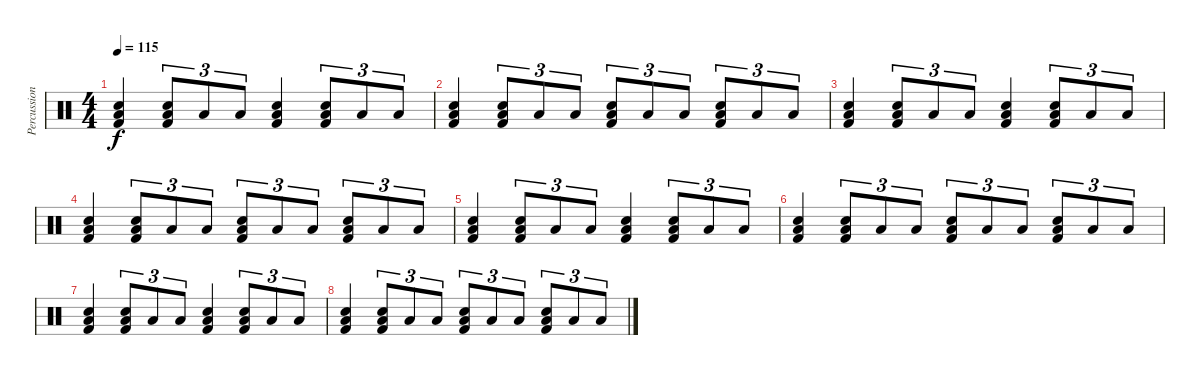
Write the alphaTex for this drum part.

\track ("Percussions" "Percussion") {instrument percussion}
\staff {score}
\articulation defaults
\ts (4 4)
\tempo 115
\clef neutral
\ks c
("Kick (hit) 2" "Low Tom (hit)" "Snare (hit) 2").4{dy f} ("Kick (hit) 2" "Low Tom (hit)" "Snare (hit) 2").8{tu (3 2)} "Low Tom (hit)".8{tu (3 2)} "Low Tom (hit)".8{tu (3 2)} ("Kick (hit) 2" "Low Tom (hit)" "Snare (hit) 2").4 ("Kick (hit) 2" "Low Tom (hit)" "Snare (hit) 2").8{tu (3 2)} "Low Tom (hit)".8{tu (3 2)} "Low Tom (hit)".8{tu (3 2)} |
("Kick (hit) 2" "Low Tom (hit)" "Snare (hit) 2").4 ("Kick (hit) 2" "Low Tom (hit)" "Snare (hit) 2").8{tu (3 2)} "Low Tom (hit)".8{tu (3 2)} "Low Tom (hit)".8{tu (3 2)} ("Kick (hit) 2" "Low Tom (hit)" "Snare (hit) 2").8{tu (3 2)} "Low Tom (hit)".8{tu (3 2)} "Low Tom (hit)".8{tu (3 2)} ("Kick (hit) 2" "Low Tom (hit)" "Snare (hit) 2").8{tu (3 2)} "Low Tom (hit)".8{tu (3 2)} "Low Tom (hit)".8{tu (3 2)} |
("Kick (hit) 2" "Low Tom (hit)" "Snare (hit) 2").4 ("Kick (hit) 2" "Low Tom (hit)" "Snare (hit) 2").8{tu (3 2)} "Low Tom (hit)".8{tu (3 2)} "Low Tom (hit)".8{tu (3 2)} ("Kick (hit) 2" "Low Tom (hit)" "Snare (hit) 2").4 ("Kick (hit) 2" "Low Tom (hit)" "Snare (hit) 2").8{tu (3 2)} "Low Tom (hit)".8{tu (3 2)} "Low Tom (hit)".8{tu (3 2)} |
("Kick (hit) 2" "Low Tom (hit)" "Snare (hit) 2").4 ("Kick (hit) 2" "Low Tom (hit)" "Snare (hit) 2").8{tu (3 2)} "Low Tom (hit)".8{tu (3 2)} "Low Tom (hit)".8{tu (3 2)} ("Kick (hit) 2" "Low Tom (hit)" "Snare (hit) 2").8{tu (3 2)} "Low Tom (hit)".8{tu (3 2)} "Low Tom (hit)".8{tu (3 2)} ("Kick (hit) 2" "Low Tom (hit)" "Snare (hit) 2").8{tu (3 2)} "Low Tom (hit)".8{tu (3 2)} "Low Tom (hit)".8{tu (3 2)} |
("Kick (hit) 2" "Low Tom (hit)" "Snare (hit) 2").4 ("Kick (hit) 2" "Low Tom (hit)" "Snare (hit) 2").8{tu (3 2)} "Low Tom (hit)".8{tu (3 2)} "Low Tom (hit)".8{tu (3 2)} ("Kick (hit) 2" "Low Tom (hit)" "Snare (hit) 2").4 ("Kick (hit) 2" "Low Tom (hit)" "Snare (hit) 2").8{tu (3 2)} "Low Tom (hit)".8{tu (3 2)} "Low Tom (hit)".8{tu (3 2)} |
("Kick (hit) 2" "Low Tom (hit)" "Snare (hit) 2").4 ("Kick (hit) 2" "Low Tom (hit)" "Snare (hit) 2").8{tu (3 2)} "Low Tom (hit)".8{tu (3 2)} "Low Tom (hit)".8{tu (3 2)} ("Kick (hit) 2" "Low Tom (hit)" "Snare (hit) 2").8{tu (3 2)} "Low Tom (hit)".8{tu (3 2)} "Low Tom (hit)".8{tu (3 2)} ("Kick (hit) 2" "Low Tom (hit)" "Snare (hit) 2").8{tu (3 2)} "Low Tom (hit)".8{tu (3 2)} "Low Tom (hit)".8{tu (3 2)} |
("Kick (hit) 2" "Low Tom (hit)" "Snare (hit) 2").4 ("Kick (hit) 2" "Low Tom (hit)" "Snare (hit) 2").8{tu (3 2)} "Low Tom (hit)".8{tu (3 2)} "Low Tom (hit)".8{tu (3 2)} ("Kick (hit) 2" "Low Tom (hit)" "Snare (hit) 2").4 ("Kick (hit) 2" "Low Tom (hit)" "Snare (hit) 2").8{tu (3 2)} "Low Tom (hit)".8{tu (3 2)} "Low Tom (hit)".8{tu (3 2)} |
("Kick (hit) 2" "Low Tom (hit)" "Snare (hit) 2").4 ("Kick (hit) 2" "Low Tom (hit)" "Snare (hit) 2").8{tu (3 2)} "Low Tom (hit)".8{tu (3 2)} "Low Tom (hit)".8{tu (3 2)} ("Kick (hit) 2" "Low Tom (hit)" "Snare (hit) 2").8{tu (3 2)} "Low Tom (hit)".8{tu (3 2)} "Low Tom (hit)".8{tu (3 2)} ("Kick (hit) 2" "Low Tom (hit)" "Snare (hit) 2").8{tu (3 2)} "Low Tom (hit)".8{tu (3 2)} "Low Tom (hit)".8{tu (3 2)}
